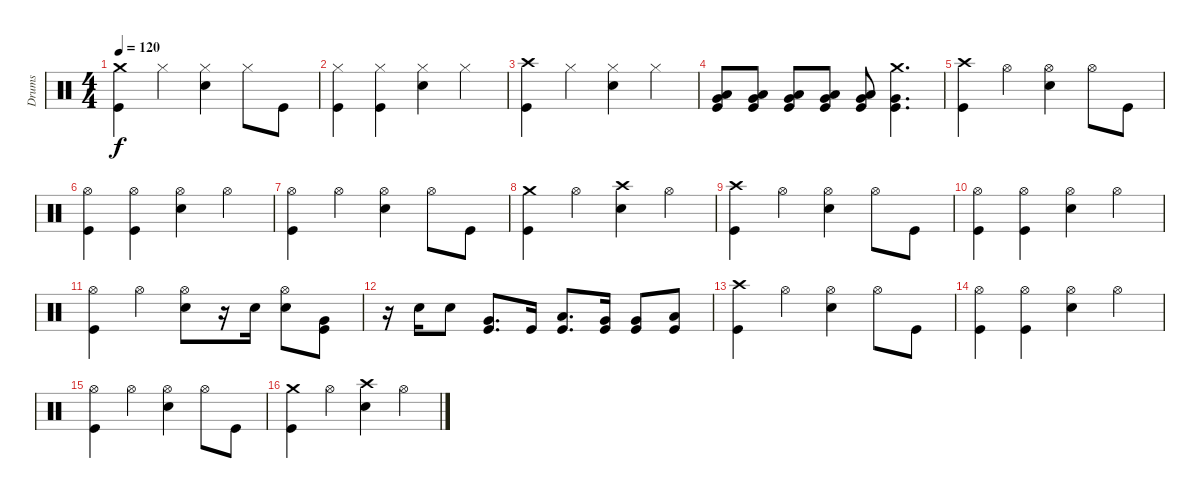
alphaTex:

\track ("Drums" "Drums") {instrument percussion}
\staff {score}
\articulation defaults
\ts (4 4)
\tempo 120
\clef neutral
\ks c
("Crash medium (hit)" "Kick (hit)").4{dy f} "Hi-Hat (closed)".4 ("Hi-Hat (closed)" "Snare (hit) 2").4 "Hi-Hat (closed)".8 "Kick (hit)".8 |
("Hi-Hat (closed)" "Kick (hit)").4 ("Hi-Hat (closed)" "Kick (hit)").4 ("Hi-Hat (closed)" "Snare (hit) 2").4 "Hi-Hat (closed)".4 |
("Crash high (hit)" "Kick (hit)").4 "Hi-Hat (closed)".4 ("Hi-Hat (closed)" "Snare (hit) 2").4 "Hi-Hat (closed)".4 |
("Low Tom (hit)" "Very Low Tom (hit)" "Kick (hit)").8 ("Low Tom (hit)" "Very Low Tom (hit)" "Kick (hit)").8 ("Low Tom (hit)" "Very Low Tom (hit)" "Kick (hit)").8 ("Low Tom (hit)" "Very Low Tom (hit)" "Kick (hit)").8 ("Low Tom (hit)" "Very Low Tom (hit)" "Kick (hit)").8 ("Crash medium (hit)" "Very Low Tom (hit)" "Kick (hit)").4{d} |
("Crash high (hit)" "Kick (hit)").4 "Hi-Hat (open)".4 ("Hi-Hat (open)" "Snare (hit) 2").4 "Hi-Hat (open)".8 "Kick (hit)".8 |
("Hi-Hat (open)" "Kick (hit)").4 ("Hi-Hat (open)" "Kick (hit)").4 ("Hi-Hat (open)" "Snare (hit) 2").4 "Hi-Hat (open)".4 |
("Hi-Hat (open)" "Kick (hit)").4 "Hi-Hat (open)".4 ("Hi-Hat (open)" "Snare (hit) 2").4 "Hi-Hat (open)".8 "Kick (hit)".8 |
("Crash medium (hit)" "Kick (hit)").4 "Hi-Hat (open)".4 ("Crash high (hit)" "Snare (hit) 2").4 "Hi-Hat (open)".4 |
("Crash high (hit)" "Kick (hit)").4 "Hi-Hat (open)".4 ("Hi-Hat (open)" "Snare (hit) 2").4 "Hi-Hat (open)".8 "Kick (hit)".8 |
("Hi-Hat (open)" "Kick (hit)").4 ("Hi-Hat (open)" "Kick (hit)").4 ("Hi-Hat (open)" "Snare (hit) 2").4 "Hi-Hat (open)".4 |
("Hi-Hat (open)" "Kick (hit)").4 "Hi-Hat (open)".4 ("Hi-Hat (open)" "Snare (hit) 2").8 r.16 "Snare (hit) 2".16 ("Hi-Hat (open)" "Snare (hit) 2").8 ("Very Low Tom (hit)" "Kick (hit)").8 |
r.16 "Snare (hit) 2".16 "Snare (hit) 2".8 ("Very Low Tom (hit)" "Kick (hit)").8{d} "Kick (hit)".16 ("Low Tom (hit)" "Kick (hit)").8{d} ("Very Low Tom (hit)" "Kick (hit)").16 ("Very Low Tom (hit)" "Kick (hit)").8 ("Low Floor Tom (hit)" "Kick (hit)").8 |
("Crash high (hit)" "Kick (hit)").4 "Hi-Hat (open)".4 ("Hi-Hat (open)" "Snare (hit) 2").4 "Hi-Hat (open)".8 "Kick (hit)".8 |
("Hi-Hat (open)" "Kick (hit)").4 ("Hi-Hat (open)" "Kick (hit)").4 ("Hi-Hat (open)" "Snare (hit) 2").4 "Hi-Hat (open)".4 |
("Hi-Hat (open)" "Kick (hit)").4 "Hi-Hat (open)".4 ("Hi-Hat (open)" "Snare (hit) 2").4 "Hi-Hat (open)".8 "Kick (hit)".8 |
("Crash medium (hit)" "Kick (hit)").4 "Hi-Hat (open)".4 ("Crash high (hit)" "Snare (hit) 2").4 "Hi-Hat (open)".4
